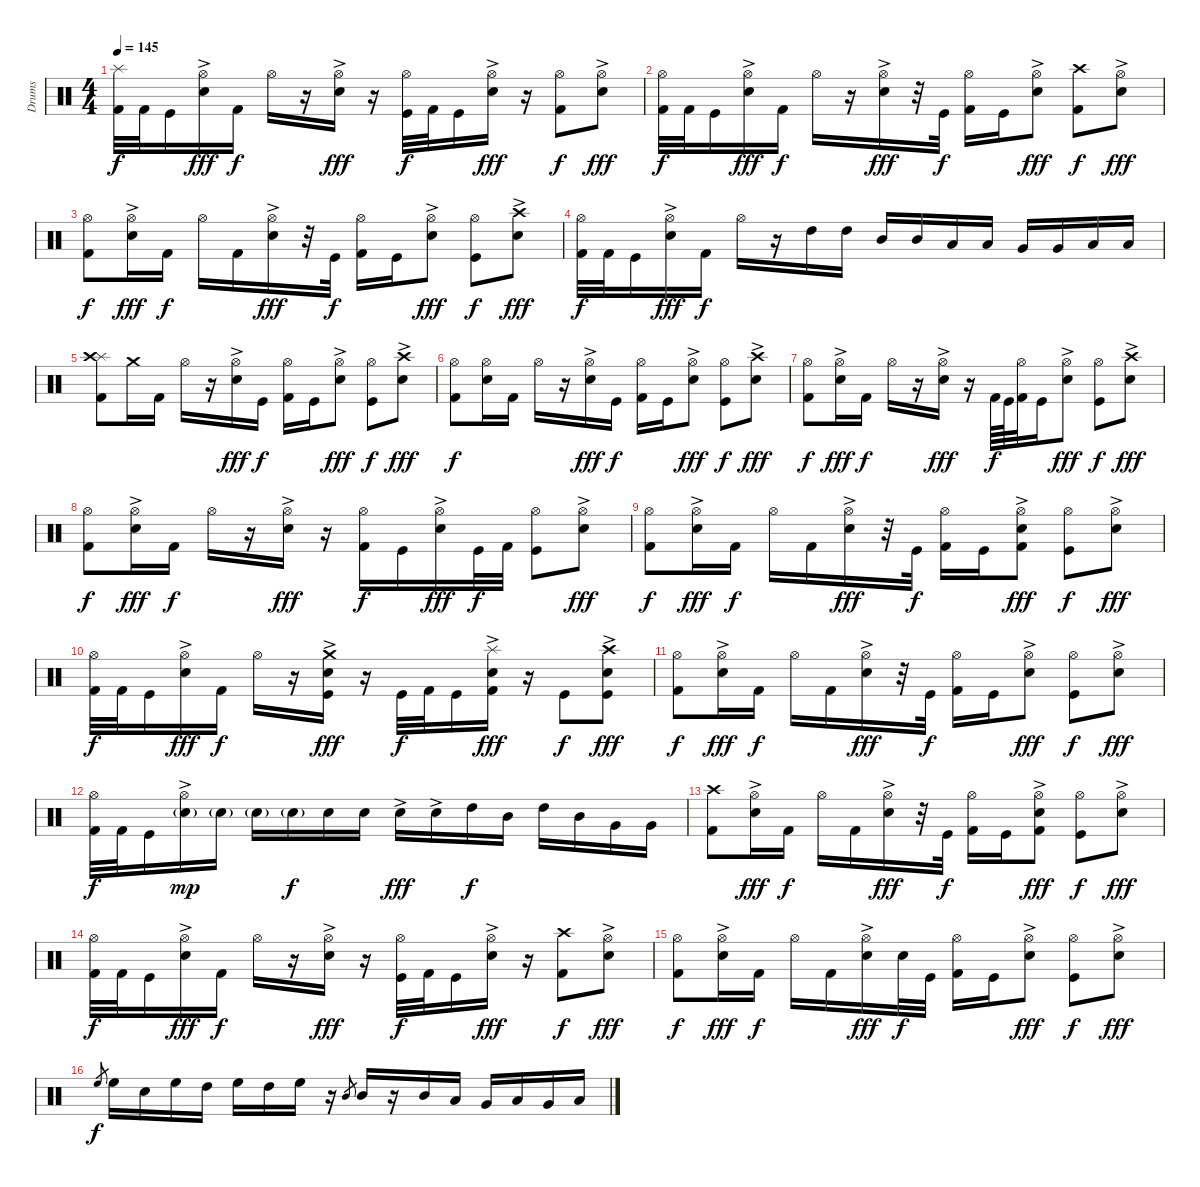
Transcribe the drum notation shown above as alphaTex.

\track ("Drums" "Drums") {instrument percussion}
\staff {score}
\articulation defaults
\ts (4 4)
\tempo 145
\clef neutral
\ks c
("Splash (hit)" "Kick (hit) 2").32{dy f} "Kick (hit) 2".32 "Kick (hit)".16 ("Hi-Hat (open)" "Electric Snare (hit)"{ac}).16{dy fff} "Kick (hit) 2".16{dy f} "Hi-Hat (open)".16 r.16 ("Hi-Hat (open)" "Electric Snare (hit)"{ac}).16{dy fff} r.16 ("Hi-Hat (open)" "Kick (hit)").32{dy f} "Kick (hit) 2".32 "Kick (hit)".16 ("Hi-Hat (open)" "Electric Snare (hit)"{ac}).16{dy fff} r.16 ("Hi-Hat (open)" "Kick (hit) 2").8{dy f} ("Hi-Hat (open)" "Electric Snare (hit)"{ac}).8{dy fff} |
("Hi-Hat (open)" "Kick (hit) 2").32{dy f} "Kick (hit) 2".32 "Kick (hit)".16 ("Hi-Hat (open)" "Electric Snare (hit)"{ac}).16{dy fff} "Kick (hit) 2".16{dy f} "Hi-Hat (open)".16 r.16 ("Hi-Hat (open)" "Electric Snare (hit)"{ac}).16{dy fff} r.32 "Kick (hit)".32{dy f} ("Hi-Hat (open)" "Kick (hit) 2").16 "Kick (hit)".16 ("Hi-Hat (open)" "Electric Snare (hit)"{ac}).8{dy fff} ("Crash high (hit)" "Kick (hit) 2").8{dy f} ("Hi-Hat (open)" "Electric Snare (hit)"{ac}).8{dy fff} |
("Hi-Hat (open)" "Kick (hit) 2").8{dy f} ("Hi-Hat (open)" "Electric Snare (hit)"{ac}).16{dy fff} "Kick (hit) 2".16{dy f} "Hi-Hat (open)".16 "Kick (hit) 2".16 ("Hi-Hat (open)" "Electric Snare (hit)"{ac}).16{dy fff} r.32 "Kick (hit)".32{dy f} ("Hi-Hat (open)" "Kick (hit) 2").16 "Kick (hit)".16 ("Hi-Hat (open)" "Electric Snare (hit)"{ac}).8{dy fff} ("Hi-Hat (open)" "Kick (hit)").8{dy f} ("Crash high (hit)" "Electric Snare (hit)"{ac}).8{dy fff} |
("Hi-Hat (open)" "Kick (hit) 2").32{dy f} "Kick (hit) 2".32 "Kick (hit)".16 ("Hi-Hat (open)" "Electric Snare (hit)"{ac}).16{dy fff} "Kick (hit) 2".16{dy f} "Hi-Hat (open)".16 r.16 "High Tom (hit)".16 "High Tom (hit)".16 "Mid Tom (hit)".16 "Mid Tom (hit)".16 "Low Tom (hit)".16 "Low Tom (hit)".16 "Very Low Tom (hit)".16 "Very Low Tom (hit)".16 "Low Floor Tom (hit)".16 "Low Floor Tom (hit)".16 |
("Splash (hit)" "Crash high (hit)" "Kick (hit) 2").8 "Crash medium (hit)".16 "Kick (hit) 2".16 "Hi-Hat (open)".16 r.16 ("Hi-Hat (open)" "Electric Snare (hit)"{ac}).16{dy fff} "Kick (hit)".16{dy f} ("Hi-Hat (open)" "Kick (hit) 2").16 "Kick (hit)".16 ("Hi-Hat (open)" "Electric Snare (hit)"{ac}).8{dy fff} ("Hi-Hat (open)" "Kick (hit)").8{dy f} ("Crash high (hit)" "Electric Snare (hit)"{ac}).8{dy fff} |
("Hi-Hat (open)" "Kick (hit) 2").8{dy f} ("Hi-Hat (open)" "Electric Snare (hit)").16 "Kick (hit) 2".16 "Hi-Hat (open)".16 r.16 ("Hi-Hat (open)" "Electric Snare (hit)"{ac}).16{dy fff} "Kick (hit)".16{dy f} ("Hi-Hat (open)" "Kick (hit) 2").16 "Kick (hit)".16 ("Hi-Hat (open)" "Electric Snare (hit)"{ac}).8{dy fff} ("Hi-Hat (open)" "Kick (hit)").8{dy f} ("Crash high (hit)" "Electric Snare (hit)"{ac}).8{dy fff} |
("Hi-Hat (open)" "Kick (hit) 2").8{dy f} ("Hi-Hat (open)" "Electric Snare (hit)"{ac}).16{dy fff} "Kick (hit) 2".16{dy f} "Hi-Hat (open)".16 r.16 ("Hi-Hat (open)" "Electric Snare (hit)"{ac}).16{dy fff} r.16 "Kick (hit) 2".64{dy f} "Kick (hit)".64 ("Hi-Hat (open)" "Kick (hit) 2").32 "Kick (hit)".16 ("Hi-Hat (open)" "Electric Snare (hit)"{ac}).8{dy fff} ("Hi-Hat (open)" "Kick (hit)").8{dy f} ("Crash high (hit)" "Electric Snare (hit)"{ac}).8{dy fff} |
("Hi-Hat (open)" "Kick (hit) 2").8{dy f} ("Hi-Hat (open)" "Electric Snare (hit)"{ac}).16{dy fff} "Kick (hit) 2".16{dy f} "Hi-Hat (open)".16 r.16 ("Hi-Hat (open)" "Electric Snare (hit)"{ac}).16{dy fff} r.16 ("Hi-Hat (open)" "Kick (hit) 2").16{dy f} "Kick (hit)".16 ("Hi-Hat (open)" "Electric Snare (hit)"{ac}).16{dy fff} "Kick (hit)".32{dy f} "Kick (hit) 2".32 ("Hi-Hat (open)" "Kick (hit)").8 ("Hi-Hat (open)" "Electric Snare (hit)"{ac}).8{dy fff} |
("Hi-Hat (open)" "Kick (hit) 2").8{dy f} ("Hi-Hat (open)" "Electric Snare (hit)"{ac}).16{dy fff} "Kick (hit) 2".16{dy f} "Hi-Hat (open)".16 "Kick (hit) 2".16 ("Hi-Hat (open)" "Electric Snare (hit)"{ac}).16{dy fff} r.32 "Kick (hit)".32{dy f} ("Hi-Hat (open)" "Kick (hit) 2").16 "Kick (hit)".16 ("Hi-Hat (open)" "Electric Snare (hit)"{ac} "Kick (hit) 2").8{dy fff} ("Hi-Hat (open)" "Kick (hit)").8{dy f} ("Hi-Hat (open)" "Electric Snare (hit)"{ac}).8{dy fff} |
("Hi-Hat (open)" "Kick (hit) 2").32{dy f} "Kick (hit) 2".32 "Kick (hit)".16 ("Hi-Hat (open)" "Electric Snare (hit)"{ac}).16{dy fff} "Kick (hit) 2".16{dy f} "Hi-Hat (open)".16 r.16 ("Crash medium (hit)" "Electric Snare (hit)"{ac} "Kick (hit)").16{dy fff} r.16 "Kick (hit)".32{dy f} "Kick (hit) 2".32 "Kick (hit)".16 ("Splash (hit)" "Electric Snare (hit)"{ac} "Kick (hit) 2").16{dy fff} r.16 "Kick (hit)".8{dy f} ("Crash high (hit)" "Electric Snare (hit)"{ac} "Kick (hit)").8{dy fff} |
("Hi-Hat (open)" "Kick (hit) 2").8{dy f} ("Hi-Hat (open)" "Electric Snare (hit)"{ac}).16{dy fff} "Kick (hit) 2".16{dy f} "Hi-Hat (open)".16 "Kick (hit) 2".16 ("Hi-Hat (open)" "Electric Snare (hit)"{ac}).16{dy fff} r.32 "Kick (hit)".32{dy f} ("Hi-Hat (open)" "Kick (hit) 2").16 "Kick (hit)".16 ("Hi-Hat (open)" "Electric Snare (hit)"{ac}).8{dy fff} ("Hi-Hat (open)" "Kick (hit)").8{dy f} ("Hi-Hat (open)" "Electric Snare (hit)"{ac}).8{dy fff} |
("Hi-Hat (open)" "Kick (hit) 2").32{dy f} "Kick (hit) 2".32 "Kick (hit)".16 ("Hi-Hat (open)" "Electric Snare (hit)"{g ac}).16{dy mp} "Electric Snare (hit)"{g}.16 "Electric Snare (hit)"{g}.16 "Electric Snare (hit)"{g}.16{dy f} "Electric Snare (hit)".16 "Electric Snare (hit)".16 "Electric Snare (hit)"{ac}.16{dy fff} "Electric Snare (hit)"{ac}.16 "High Tom (hit)".16{dy f} "Mid Tom (hit)".16 "High Tom (hit)".16 "Mid Tom (hit)".16 "Very Low Tom (hit)".16 "Very Low Tom (hit)".16 |
("Crash high (hit)" "Kick (hit) 2").8 ("Hi-Hat (open)" "Electric Snare (hit)"{ac}).16{dy fff} "Kick (hit) 2".16{dy f} "Hi-Hat (open)".16 "Kick (hit) 2".16 ("Hi-Hat (open)" "Electric Snare (hit)"{ac}).16{dy fff} r.32 "Kick (hit)".32{dy f} ("Hi-Hat (open)" "Kick (hit) 2").16 "Kick (hit)".16 ("Hi-Hat (open)" "Electric Snare (hit)"{ac} "Kick (hit) 2").8{dy fff} ("Hi-Hat (open)" "Kick (hit)").8{dy f} ("Hi-Hat (open)" "Electric Snare (hit)"{ac}).8{dy fff} |
("Hi-Hat (open)" "Kick (hit) 2").32{dy f} "Kick (hit) 2".32 "Kick (hit)".16 ("Hi-Hat (open)" "Electric Snare (hit)"{ac}).16{dy fff} "Kick (hit) 2".16{dy f} "Hi-Hat (open)".16 r.16 ("Hi-Hat (open)" "Electric Snare (hit)"{ac}).16{dy fff} r.16 ("Hi-Hat (open)" "Kick (hit)").32{dy f} "Kick (hit) 2".32 "Kick (hit)".16 ("Hi-Hat (open)" "Electric Snare (hit)"{ac}).16{dy fff} r.16 ("Crash high (hit)" "Kick (hit) 2").8{dy f} ("Hi-Hat (open)" "Electric Snare (hit)"{ac}).8{dy fff} |
("Hi-Hat (open)" "Kick (hit) 2").8{dy f} ("Hi-Hat (open)" "Electric Snare (hit)"{ac}).16{dy fff} "Kick (hit) 2".16{dy f} "Hi-Hat (open)".16 "Kick (hit) 2".16 ("Hi-Hat (open)" "Electric Snare (hit)"{ac}).16{dy fff} "Snare (hit)".32{dy f} "Kick (hit)".32 ("Hi-Hat (open)" "Kick (hit) 2").16 "Kick (hit)".16 ("Hi-Hat (open)" "Electric Snare (hit)"{ac}).8{dy fff} ("Hi-Hat (open)" "Kick (hit)").8{dy f} ("Hi-Hat (open)" "Electric Snare (hit)"{ac}).8{dy fff} |
"High Floor Tom (hit)".8{gr dy f} "High Floor Tom (hit)".16 "Snare (hit)".16 "High Floor Tom (hit)".16 "High Tom (hit)".16 "High Floor Tom (hit)".16 "High Tom (hit)".16 "High Floor Tom (hit)".16 r.16 "Mid Tom (hit)".8{gr} "Mid Tom (hit)".16 r.16 "Mid Tom (hit)".16 "Low Tom (hit)".16 "Very Low Tom (hit)".16 "Low Floor Tom (hit)".16 "Very Low Tom (hit)".16 "Low Floor Tom (hit)".16
